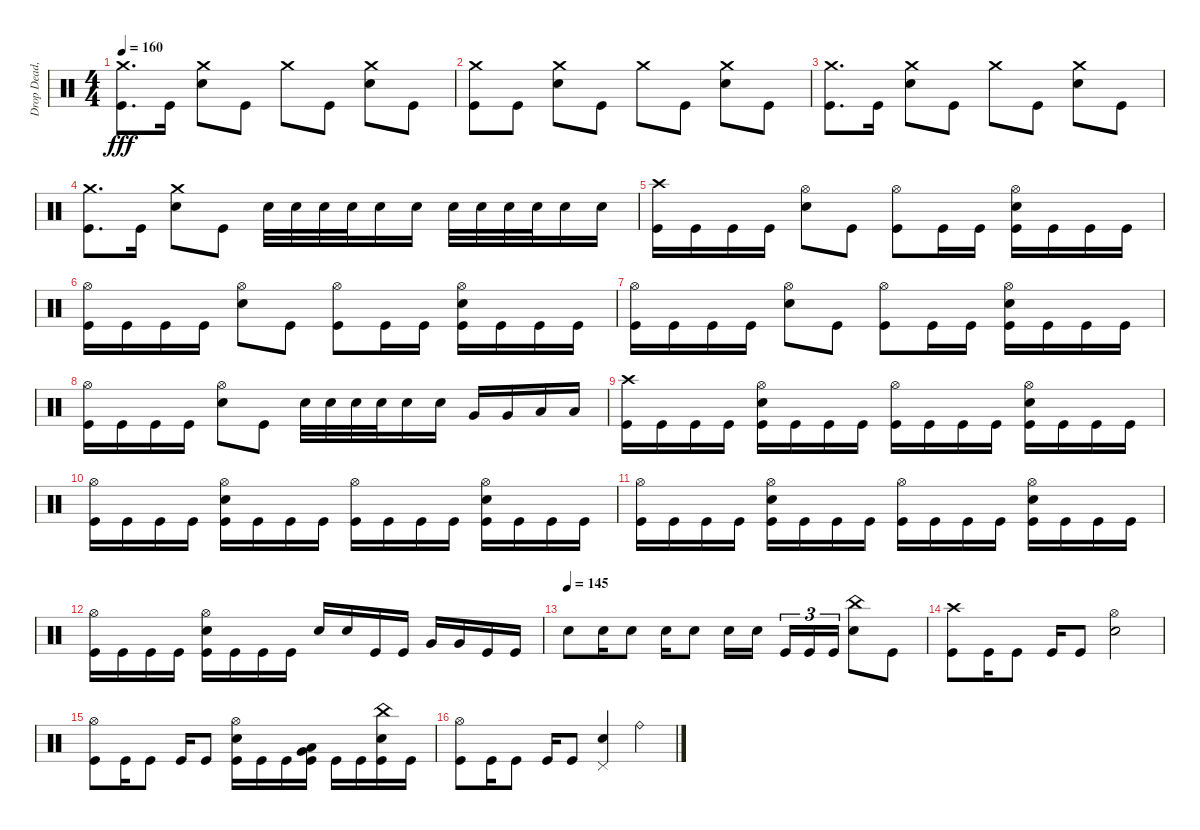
\track ("Drop Dead, Johnny" "Drop Dead,") {instrument percussion}
\staff {score}
\articulation defaults
\ts (4 4)
\tempo 160
\clef neutral
\ks c
("Crash medium (hit)" "Kick (hit)").8{d dy fff} "Kick (hit)".16 ("Crash medium (hit)" "Electric Snare (hit)").8 "Kick (hit)".8 "Crash medium (hit)".8 "Kick (hit)".8 ("Crash medium (hit)" "Electric Snare (hit)").8 "Kick (hit)".8 |
("Crash medium (hit)" "Kick (hit)").8 "Kick (hit)".8 ("Crash medium (hit)" "Electric Snare (hit)").8 "Kick (hit)".8 "Crash medium (hit)".8 "Kick (hit)".8 ("Crash medium (hit)" "Electric Snare (hit)").8 "Kick (hit)".8 |
("Crash medium (hit)" "Kick (hit)").8{d} "Kick (hit)".16 ("Crash medium (hit)" "Electric Snare (hit)").8 "Kick (hit)".8 "Crash medium (hit)".8 "Kick (hit)".8 ("Crash medium (hit)" "Electric Snare (hit)").8 "Kick (hit)".8 |
("Crash medium (hit)" "Kick (hit)").8{d} "Kick (hit)".16 ("Crash medium (hit)" "Electric Snare (hit)").8 "Kick (hit)".8 "Electric Snare (hit)".32 "Electric Snare (hit)".32 "Electric Snare (hit)".32 "Electric Snare (hit)".32 "Electric Snare (hit)".16 "Electric Snare (hit)".16 "Electric Snare (hit)".32 "Electric Snare (hit)".32 "Electric Snare (hit)".32 "Electric Snare (hit)".32 "Electric Snare (hit)".16 "Electric Snare (hit)".16 |
("Crash high (hit)" "Kick (hit)").16 "Kick (hit)".16 "Kick (hit)".16 "Kick (hit)".16 ("Hi-Hat (open)" "Electric Snare (hit)").8 "Kick (hit)".8 ("Hi-Hat (open)" "Kick (hit)").8 "Kick (hit)".16 "Kick (hit)".16 ("Hi-Hat (open)" "Electric Snare (hit)" "Kick (hit)").16 "Kick (hit)".16 "Kick (hit)".16 "Kick (hit)".16 |
("Hi-Hat (open)" "Kick (hit)").16 "Kick (hit)".16 "Kick (hit)".16 "Kick (hit)".16 ("Hi-Hat (open)" "Electric Snare (hit)").8 "Kick (hit)".8 ("Hi-Hat (open)" "Kick (hit)").8 "Kick (hit)".16 "Kick (hit)".16 ("Hi-Hat (open)" "Electric Snare (hit)" "Kick (hit)").16 "Kick (hit)".16 "Kick (hit)".16 "Kick (hit)".16 |
("Hi-Hat (open)" "Kick (hit)").16 "Kick (hit)".16 "Kick (hit)".16 "Kick (hit)".16 ("Hi-Hat (open)" "Electric Snare (hit)").8 "Kick (hit)".8 ("Hi-Hat (open)" "Kick (hit)").8 "Kick (hit)".16 "Kick (hit)".16 ("Hi-Hat (open)" "Electric Snare (hit)" "Kick (hit)").16 "Kick (hit)".16 "Kick (hit)".16 "Kick (hit)".16 |
("Hi-Hat (open)" "Kick (hit)").16 "Kick (hit)".16 "Kick (hit)".16 "Kick (hit)".16 ("Hi-Hat (open)" "Electric Snare (hit)").8 "Kick (hit)".8 "Electric Snare (hit)".32 "Electric Snare (hit)".32 "Electric Snare (hit)".32 "Electric Snare (hit)".32 "Electric Snare (hit)".16 "Electric Snare (hit)".16 "Very Low Tom (hit)".16 "Very Low Tom (hit)".16 "Low Floor Tom (hit)".16 "Low Floor Tom (hit)".16 |
("Crash high (hit)" "Kick (hit)").16 "Kick (hit)".16 "Kick (hit)".16 "Kick (hit)".16 ("Hi-Hat (open)" "Electric Snare (hit)" "Kick (hit)").16 "Kick (hit)".16 "Kick (hit)".16 "Kick (hit)".16 ("Hi-Hat (open)" "Kick (hit)").16 "Kick (hit)".16 "Kick (hit)".16 "Kick (hit)".16 ("Hi-Hat (open)" "Electric Snare (hit)" "Kick (hit)").16 "Kick (hit)".16 "Kick (hit)".16 "Kick (hit)".16 |
("Hi-Hat (open)" "Kick (hit)").16 "Kick (hit)".16 "Kick (hit)".16 "Kick (hit)".16 ("Hi-Hat (open)" "Electric Snare (hit)" "Kick (hit)").16 "Kick (hit)".16 "Kick (hit)".16 "Kick (hit)".16 ("Hi-Hat (open)" "Kick (hit)").16 "Kick (hit)".16 "Kick (hit)".16 "Kick (hit)".16 ("Hi-Hat (open)" "Electric Snare (hit)" "Kick (hit)").16 "Kick (hit)".16 "Kick (hit)".16 "Kick (hit)".16 |
("Hi-Hat (open)" "Kick (hit)").16 "Kick (hit)".16 "Kick (hit)".16 "Kick (hit)".16 ("Hi-Hat (open)" "Electric Snare (hit)" "Kick (hit)").16 "Kick (hit)".16 "Kick (hit)".16 "Kick (hit)".16 ("Hi-Hat (open)" "Kick (hit)").16 "Kick (hit)".16 "Kick (hit)".16 "Kick (hit)".16 ("Hi-Hat (open)" "Electric Snare (hit)" "Kick (hit)").16 "Kick (hit)".16 "Kick (hit)".16 "Kick (hit)".16 |
("Hi-Hat (open)" "Kick (hit)").16 "Kick (hit)".16 "Kick (hit)".16 "Kick (hit)".16 ("Hi-Hat (open)" "Electric Snare (hit)" "Kick (hit)").16 "Kick (hit)".16 "Kick (hit)".16 "Kick (hit)".16 "Electric Snare (hit)".16 "Electric Snare (hit)".16 "Kick (hit)".16 "Kick (hit)".16 "Very Low Tom (hit)".16 "Very Low Tom (hit)".16 "Kick (hit)".16 "Kick (hit)".16 |
\tempo (145)
"Electric Snare (hit)".8 "Electric Snare (hit)".16 "Electric Snare (hit)".8 "Electric Snare (hit)".16 "Electric Snare (hit)".8 "Electric Snare (hit)".16 "Electric Snare (hit)".16{beam splitsecondary} "Kick (hit)".16{tu (3 2)} "Kick (hit)".16{tu (3 2)} "Kick (hit)".16{tu (3 2)} ("China (hit)" "Electric Snare (hit)").8 "Kick (hit)".8 |
("Crash high (hit)" "Kick (hit)").8 "Kick (hit)".16 "Kick (hit)".8 "Kick (hit)".16 "Kick (hit)".8 ("Hi-Hat (open)" "Electric Snare (hit)").2 |
("Hi-Hat (open)" "Kick (hit)").8 "Kick (hit)".16 "Kick (hit)".8 "Kick (hit)".16 "Kick (hit)".8 ("Hi-Hat (open)" "Electric Snare (hit)" "Kick (hit)").16 "Kick (hit)".16 "Kick (hit)".16 ("Very Low Tom (hit)" "Low Floor Tom (hit)" "Kick (hit)").16 "Kick (hit)".16 "Kick (hit)".16 ("China (hit)" "Electric Snare (hit)" "Kick (hit)").16 "Kick (hit)".16 |
("Hi-Hat (open)" "Kick (hit)").8 "Kick (hit)".16 "Kick (hit)".8 "Kick (hit)".16 "Kick (hit)".8 ("Pedal Hi-Hat (hit)" "Electric Snare (hit)").4 "Ride (bell)".4
